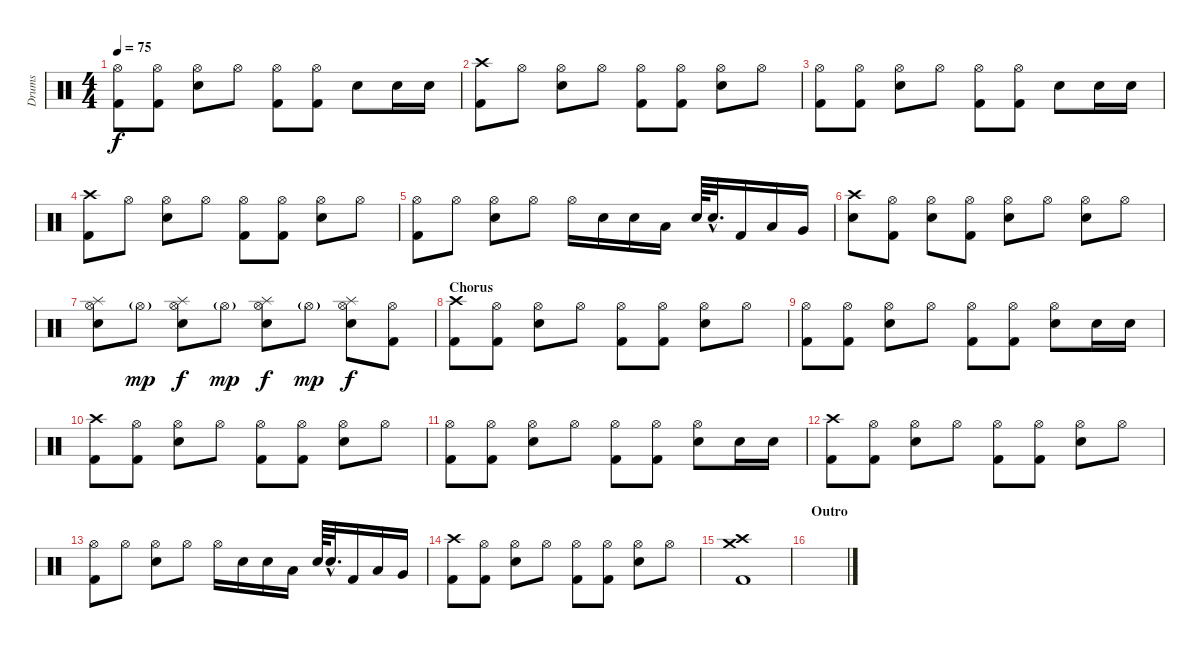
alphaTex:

\track ("Drums" "Drums") {instrument percussion}
\staff {score}
\articulation defaults
\ts (4 4)
\tempo 75
\clef neutral
\ks c
("Hi-Hat (open)" "Kick (hit) 2").8{dy f} ("Hi-Hat (open)" "Kick (hit) 2").8 ("Hi-Hat (open)" "Snare (hit) 2").8 "Hi-Hat (open)".8 ("Hi-Hat (open)" "Kick (hit) 2").8 ("Hi-Hat (open)" "Kick (hit) 2").8 "Snare (hit) 2".8 "Snare (hit) 2".16 "Snare (hit) 2".16 |
("Crash high (hit)" "Kick (hit) 2").8 "Hi-Hat (open)".8 ("Hi-Hat (open)" "Snare (hit) 2").8 "Hi-Hat (open)".8 ("Hi-Hat (open)" "Kick (hit) 2").8 ("Hi-Hat (open)" "Kick (hit) 2").8 ("Hi-Hat (open)" "Snare (hit) 2").8 "Hi-Hat (open)".8 |
("Hi-Hat (open)" "Kick (hit) 2").8 ("Hi-Hat (open)" "Kick (hit) 2").8 ("Hi-Hat (open)" "Snare (hit) 2").8 "Hi-Hat (open)".8 ("Hi-Hat (open)" "Kick (hit) 2").8 ("Hi-Hat (open)" "Kick (hit) 2").8 "Snare (hit) 2".8 "Snare (hit) 2".16 "Snare (hit) 2".16 |
("Crash high (hit)" "Kick (hit) 2").8 "Hi-Hat (open)".8 ("Hi-Hat (open)" "Snare (hit) 2").8 "Hi-Hat (open)".8 ("Hi-Hat (open)" "Kick (hit) 2").8 ("Hi-Hat (open)" "Kick (hit) 2").8 ("Hi-Hat (open)" "Snare (hit) 2").8 "Hi-Hat (open)".8 |
("Hi-Hat (open)" "Kick (hit) 2").8 "Hi-Hat (open)".8 ("Hi-Hat (open)" "Snare (hit) 2").8 "Hi-Hat (open)".8 "Hi-Hat (open)".16 "Snare (hit) 2".16 "Snare (hit) 2".16 "Low Tom (hit)".16 "Snare (hit) 2".64 "Snare (hit) 2"{hac}.32{d} "Kick (hit) 2".16 "Low Tom (hit)".16 "Very Low Tom (hit)".16 |
("Crash high (hit)" "Snare (hit) 2").8 ("Hi-Hat (open)" "Kick (hit) 2").8 ("Hi-Hat (open)" "Snare (hit) 2").8 ("Hi-Hat (open)" "Kick (hit) 2").8 ("Hi-Hat (open)" "Snare (hit) 2").8 "Hi-Hat (open)".8 ("Hi-Hat (open)" "Snare (hit) 2").8 "Hi-Hat (open)".8 |
("Hi-Hat (open)" "Splash (hit)" "Snare (hit) 2").8 "Hi-Hat (open)"{g}.8{dy mp} ("Hi-Hat (open)" "Splash (hit)" "Snare (hit) 2").8{dy f} "Hi-Hat (open)"{g}.8{dy mp} ("Hi-Hat (open)" "Splash (hit)" "Snare (hit) 2").8{dy f} "Hi-Hat (open)"{g}.8{dy mp} ("Hi-Hat (open)" "Splash (hit)" "Snare (hit) 2").8{dy f} ("Hi-Hat (open)" "Kick (hit) 2").8 |
\section ("" "Chorus")
("Crash high (hit)" "Kick (hit) 2").8 ("Hi-Hat (open)" "Kick (hit) 2").8 ("Hi-Hat (open)" "Snare (hit) 2").8 "Hi-Hat (open)".8 ("Hi-Hat (open)" "Kick (hit) 2").8 ("Hi-Hat (open)" "Kick (hit) 2").8 ("Hi-Hat (open)" "Snare (hit) 2").8 "Hi-Hat (open)".8 |
("Hi-Hat (open)" "Kick (hit) 2").8 ("Hi-Hat (open)" "Kick (hit) 2").8 ("Hi-Hat (open)" "Snare (hit) 2").8 "Hi-Hat (open)".8 ("Hi-Hat (open)" "Kick (hit) 2").8 ("Hi-Hat (open)" "Kick (hit) 2").8 ("Hi-Hat (open)" "Snare (hit) 2").8 "Snare (hit) 2".16 "Snare (hit) 2".16 |
("Crash high (hit)" "Kick (hit) 2").8 ("Hi-Hat (open)" "Kick (hit) 2").8 ("Hi-Hat (open)" "Snare (hit) 2").8 "Hi-Hat (open)".8 ("Hi-Hat (open)" "Kick (hit) 2").8 ("Hi-Hat (open)" "Kick (hit) 2").8 ("Hi-Hat (open)" "Snare (hit) 2").8 "Hi-Hat (open)".8 |
("Hi-Hat (open)" "Kick (hit) 2").8 ("Hi-Hat (open)" "Kick (hit) 2").8 ("Hi-Hat (open)" "Snare (hit) 2").8 "Hi-Hat (open)".8 ("Hi-Hat (open)" "Kick (hit) 2").8 ("Hi-Hat (open)" "Kick (hit) 2").8 ("Hi-Hat (open)" "Snare (hit) 2").8 "Snare (hit) 2".16 "Snare (hit) 2".16 |
("Crash high (hit)" "Kick (hit) 2").8 ("Hi-Hat (open)" "Kick (hit) 2").8 ("Hi-Hat (open)" "Snare (hit) 2").8 "Hi-Hat (open)".8 ("Hi-Hat (open)" "Kick (hit) 2").8 ("Hi-Hat (open)" "Kick (hit) 2").8 ("Hi-Hat (open)" "Snare (hit) 2").8 "Hi-Hat (open)".8 |
("Hi-Hat (open)" "Kick (hit) 2").8 "Hi-Hat (open)".8 ("Hi-Hat (open)" "Snare (hit) 2").8 "Hi-Hat (open)".8 "Hi-Hat (open)".16 "Snare (hit) 2".16 "Snare (hit) 2".16 "Low Tom (hit)".16 "Snare (hit) 2".64 "Snare (hit) 2"{hac}.32{d} "Kick (hit) 2".16 "Low Tom (hit)".16 "Very Low Tom (hit)".16 |
("Crash high (hit)" "Kick (hit) 2").8 ("Hi-Hat (open)" "Kick (hit) 2").8 ("Hi-Hat (open)" "Snare (hit) 2").8 "Hi-Hat (open)".8 ("Hi-Hat (open)" "Kick (hit) 2").8 ("Hi-Hat (open)" "Kick (hit) 2").8 ("Hi-Hat (open)" "Snare (hit) 2").8 "Hi-Hat (open)".8 |
("Crash high (hit)" "Crash medium (hit)" "Kick (hit) 2").1 |
\section ("" "Outro")
